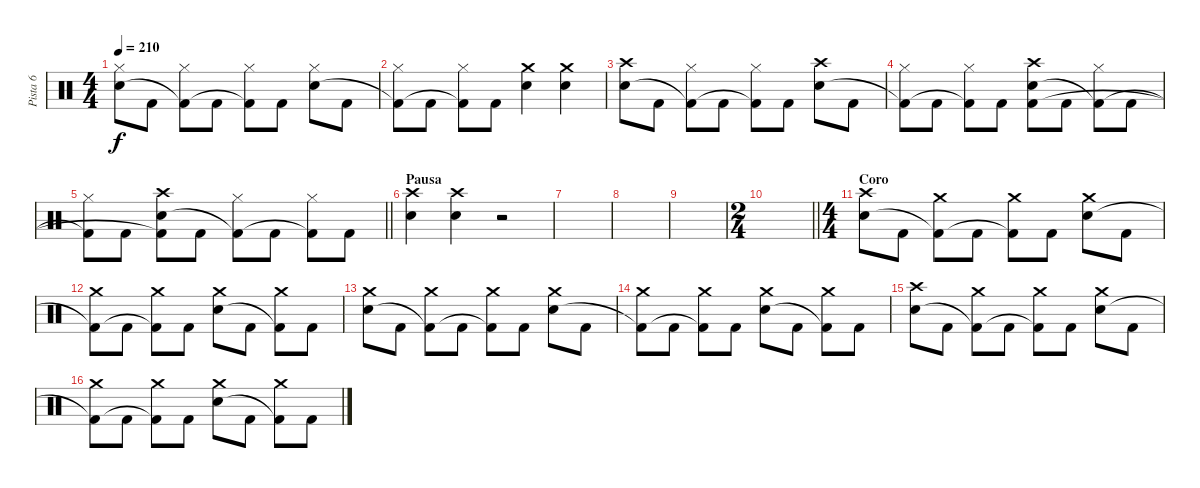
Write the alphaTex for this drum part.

\track ("Pista 6" "Pista 6") {instrument percussion}
\staff {score}
\articulation defaults
\ts (4 4)
\tempo 210
\clef neutral
\ks c
("Hi-Hat (closed)" "Electric Snare (hit)").8{dy f} "Kick (hit) 2".8 ("Hi-Hat (closed)" "Kick (hit) 2"{t}).8 "Kick (hit) 2".8 ("Hi-Hat (closed)" "Kick (hit) 2"{t}).8 "Kick (hit) 2".8 ("Hi-Hat (closed)" "Electric Snare (hit)").8 "Kick (hit) 2".8 |
("Hi-Hat (closed)" "Kick (hit) 2"{t}).8 "Kick (hit) 2".8 ("Hi-Hat (closed)" "Kick (hit) 2"{t}).8 "Kick (hit) 2".8 ("Crash medium (hit)" "Electric Snare (hit)").4 ("Crash medium (hit)" "Electric Snare (hit)").4 |
("Crash high (hit)" "Electric Snare (hit)").8 "Kick (hit) 2".8 ("Hi-Hat (closed)" "Kick (hit) 2"{t}).8 "Kick (hit) 2".8 ("Hi-Hat (closed)" "Kick (hit) 2"{t}).8 "Kick (hit) 2".8 ("Crash high (hit)" "Electric Snare (hit)").8 "Kick (hit) 2".8 |
("Hi-Hat (closed)" "Kick (hit) 2"{t}).8 "Kick (hit) 2".8 ("Hi-Hat (closed)" "Kick (hit) 2"{t}).8 "Kick (hit) 2".8 ("Crash high (hit)" "Electric Snare (hit)" "Kick (hit) 2").8 "Kick (hit) 2".8 ("Hi-Hat (closed)" "Kick (hit) 2"{t}).8 "Kick (hit) 2".8 |
\barLineRight lightlight
("Hi-Hat (closed)" "Kick (hit) 2"{t}).8 "Kick (hit) 2".8 ("Crash high (hit)" "Electric Snare (hit)" "Kick (hit) 2"{t}).8 "Kick (hit) 2".8 ("Hi-Hat (closed)" "Kick (hit) 2"{t}).8 "Kick (hit) 2".8 ("Hi-Hat (closed)" "Kick (hit) 2"{t}).8 "Kick (hit) 2".8 |
\section ("" "Pausa")
("Crash high (hit)" "Electric Snare (hit)").4 ("Crash high (hit)" "Electric Snare (hit)").4 r.2 |
|
|
|
\ts (2 4)
\barLineRight lightlight
|
\ts (4 4)
\section ("" "Coro")
("Crash high (hit)" "Electric Snare (hit)").8 "Kick (hit) 2".8 ("Crash medium (hit)" "Kick (hit) 2"{t}).8 "Kick (hit) 2".8 ("Crash medium (hit)" "Kick (hit) 2"{t}).8 "Kick (hit) 2".8 ("Crash medium (hit)" "Electric Snare (hit)").8 "Kick (hit) 2".8 |
("Crash medium (hit)" "Kick (hit) 2"{t}).8 "Kick (hit) 2".8 ("Crash medium (hit)" "Kick (hit) 2"{t}).8 "Kick (hit) 2".8 ("Crash medium (hit)" "Electric Snare (hit)").8 "Kick (hit) 2".8 ("Crash medium (hit)" "Kick (hit) 2"{t}).8 "Kick (hit) 2".8 |
("Crash medium (hit)" "Electric Snare (hit)").8 "Kick (hit) 2".8 ("Crash medium (hit)" "Kick (hit) 2"{t}).8 "Kick (hit) 2".8 ("Crash medium (hit)" "Kick (hit) 2"{t}).8 "Kick (hit) 2".8 ("Crash medium (hit)" "Electric Snare (hit)").8 "Kick (hit) 2".8 |
("Crash medium (hit)" "Kick (hit) 2"{t}).8 "Kick (hit) 2".8 ("Crash medium (hit)" "Kick (hit) 2"{t}).8 "Kick (hit) 2".8 ("Crash medium (hit)" "Electric Snare (hit)").8 "Kick (hit) 2".8 ("Crash medium (hit)" "Kick (hit) 2"{t}).8 "Kick (hit) 2".8 |
("Crash high (hit)" "Electric Snare (hit)").8 "Kick (hit) 2".8 ("Crash medium (hit)" "Kick (hit) 2"{t}).8 "Kick (hit) 2".8 ("Crash medium (hit)" "Kick (hit) 2"{t}).8 "Kick (hit) 2".8 ("Crash medium (hit)" "Electric Snare (hit)").8 "Kick (hit) 2".8 |
("Crash medium (hit)" "Kick (hit) 2"{t}).8 "Kick (hit) 2".8 ("Crash medium (hit)" "Kick (hit) 2"{t}).8 "Kick (hit) 2".8 ("Crash medium (hit)" "Electric Snare (hit)").8 "Kick (hit) 2".8 ("Crash medium (hit)" "Kick (hit) 2"{t}).8 "Kick (hit) 2".8
